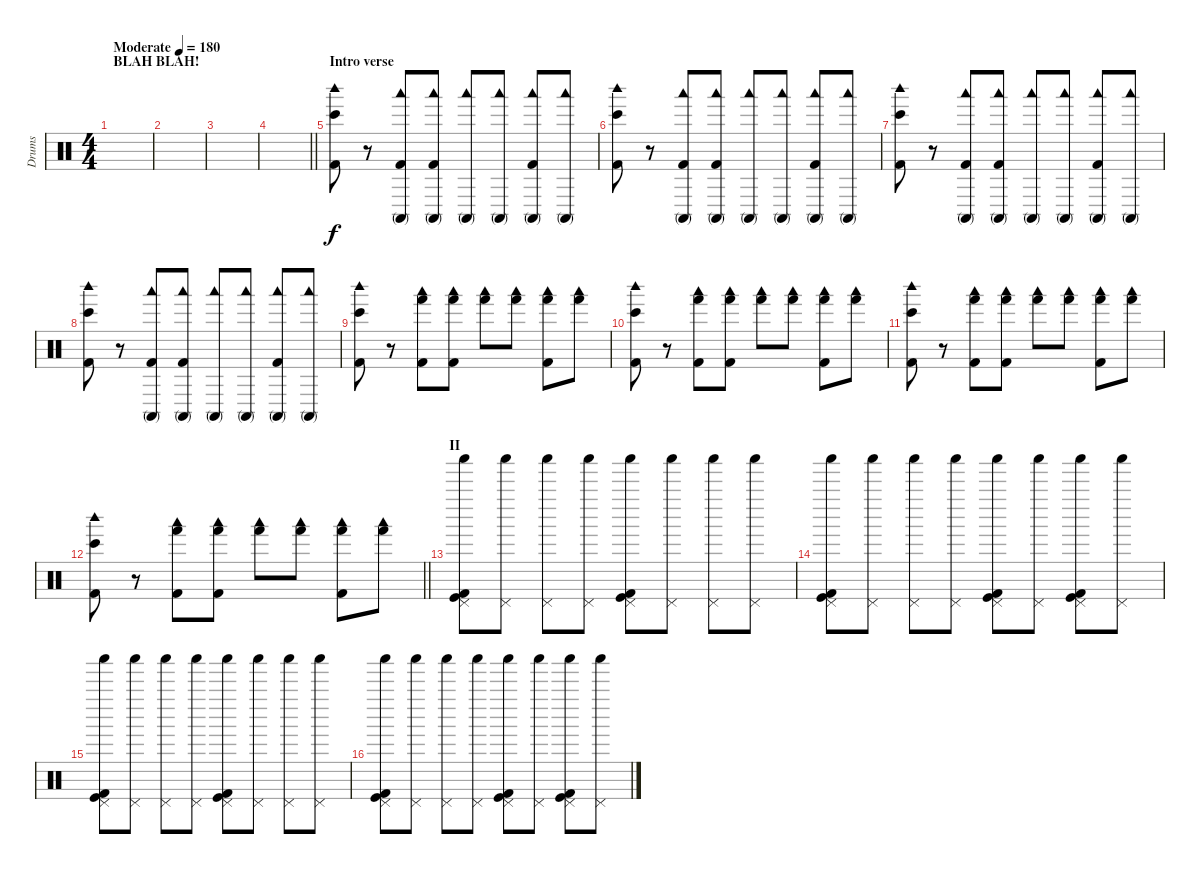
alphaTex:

\track ("Drums" "Drums") {instrument percussion}
\staff {score}
\articulation defaults
\ts (4 4)
\section ("" "BLAH BLAH!")
\tempo (180 "Moderate")
\clef neutral
\ks c
|
|
|
\barLineRight lightlight
|
\section ("" "Intro verse")
("Woodblock high (hit)" "Kick (hit) 2" "Bongo High (hit)").8 r.8 ("Woodblock low (hit)" "Kick (hit) 2" "Conga high (mute)").8 ("Woodblock low (hit)" "Kick (hit) 2" "Conga high (mute)").8 ("Woodblock low (hit)" "Conga high (mute)").8 ("Woodblock low (hit)" "Conga high (mute)").8 ("Woodblock low (hit)" "Kick (hit) 2" "Conga high (mute)").8 ("Woodblock low (hit)" "Conga high (mute)").8 |
("Woodblock high (hit)" "Kick (hit) 2" "Bongo High (hit)").8 r.8 ("Woodblock low (hit)" "Kick (hit) 2" "Conga high (mute)").8 ("Woodblock low (hit)" "Kick (hit) 2" "Conga high (mute)").8 ("Woodblock low (hit)" "Conga high (mute)").8 ("Woodblock low (hit)" "Conga high (mute)").8 ("Woodblock low (hit)" "Kick (hit) 2" "Conga high (mute)").8 ("Woodblock low (hit)" "Conga high (mute)").8 |
("Woodblock high (hit)" "Kick (hit) 2" "Bongo High (hit)").8 r.8 ("Woodblock low (hit)" "Kick (hit) 2" "Conga high (mute)").8 ("Woodblock low (hit)" "Kick (hit) 2" "Conga high (mute)").8 ("Woodblock low (hit)" "Conga high (mute)").8 ("Woodblock low (hit)" "Conga high (mute)").8 ("Woodblock low (hit)" "Kick (hit) 2" "Conga high (mute)").8 ("Woodblock low (hit)" "Conga high (mute)").8 |
("Woodblock high (hit)" "Kick (hit) 2" "Bongo High (hit)").8 r.8 ("Woodblock low (hit)" "Kick (hit) 2" "Conga high (mute)").8 ("Woodblock low (hit)" "Kick (hit) 2" "Conga high (mute)").8 ("Woodblock low (hit)" "Conga high (mute)").8 ("Woodblock low (hit)" "Conga high (mute)").8 ("Woodblock low (hit)" "Kick (hit) 2" "Conga high (mute)").8 ("Woodblock low (hit)" "Conga high (mute)").8 |
("Woodblock high (hit)" "Kick (hit) 2" "Bongo High (hit)").8 r.8 ("Woodblock low (hit)" "Kick (hit) 2" "Hand (hit)").8 ("Woodblock low (hit)" "Kick (hit) 2" "Hand (hit)").8 ("Woodblock low (hit)" "Hand (hit)").8 ("Woodblock low (hit)" "Hand (hit)").8 ("Woodblock low (hit)" "Kick (hit) 2" "Hand (hit)").8 ("Woodblock low (hit)" "Hand (hit)").8 |
("Woodblock high (hit)" "Kick (hit) 2" "Bongo High (hit)").8 r.8 ("Woodblock low (hit)" "Kick (hit) 2" "Hand (hit)").8 ("Woodblock low (hit)" "Kick (hit) 2" "Hand (hit)").8 ("Woodblock low (hit)" "Hand (hit)").8 ("Woodblock low (hit)" "Hand (hit)").8 ("Woodblock low (hit)" "Kick (hit) 2" "Hand (hit)").8 ("Woodblock low (hit)" "Hand (hit)").8 |
("Woodblock high (hit)" "Kick (hit) 2" "Bongo High (hit)").8 r.8 ("Woodblock low (hit)" "Kick (hit) 2" "Hand (hit)").8 ("Woodblock low (hit)" "Kick (hit) 2" "Hand (hit)").8 ("Woodblock low (hit)" "Hand (hit)").8 ("Woodblock low (hit)" "Hand (hit)").8 ("Woodblock low (hit)" "Kick (hit) 2" "Hand (hit)").8 ("Woodblock low (hit)" "Hand (hit)").8 |
\barLineRight lightlight
("Woodblock high (hit)" "Kick (hit) 2" "Bongo High (hit)").8 r.8 ("Woodblock low (hit)" "Kick (hit) 2" "Hand (hit)").8 ("Woodblock low (hit)" "Kick (hit) 2" "Hand (hit)").8 ("Woodblock low (hit)" "Hand (hit)").8 ("Woodblock low (hit)" "Hand (hit)").8 ("Woodblock low (hit)" "Kick (hit) 2" "Hand (hit)").8 ("Woodblock low (hit)" "Hand (hit)").8 |
\section ("" "II")
("Shaker (hit)" "Pedal Hi-Hat (hit)" "Kick (hit) 2" "Kick (hit)").8{volume 11} ("Shaker (hit)" "Pedal Hi-Hat (hit)").8 ("Shaker (hit)" "Pedal Hi-Hat (hit)").8 ("Shaker (hit)" "Pedal Hi-Hat (hit)").8 ("Shaker (hit)" "Pedal Hi-Hat (hit)" "Kick (hit) 2" "Kick (hit)").8 ("Shaker (hit)" "Pedal Hi-Hat (hit)").8 ("Shaker (hit)" "Pedal Hi-Hat (hit)").8 ("Shaker (hit)" "Pedal Hi-Hat (hit)").8 |
("Shaker (hit)" "Pedal Hi-Hat (hit)" "Kick (hit) 2" "Kick (hit)").8 ("Shaker (hit)" "Pedal Hi-Hat (hit)").8 ("Shaker (hit)" "Pedal Hi-Hat (hit)").8 ("Shaker (hit)" "Pedal Hi-Hat (hit)").8 ("Shaker (hit)" "Pedal Hi-Hat (hit)" "Kick (hit) 2" "Kick (hit)").8 ("Shaker (hit)" "Pedal Hi-Hat (hit)").8 ("Shaker (hit)" "Pedal Hi-Hat (hit)" "Kick (hit) 2" "Kick (hit)").8 ("Shaker (hit)" "Pedal Hi-Hat (hit)").8 |
("Shaker (hit)" "Pedal Hi-Hat (hit)" "Kick (hit) 2" "Kick (hit)").8{volume 11} ("Shaker (hit)" "Pedal Hi-Hat (hit)").8 ("Shaker (hit)" "Pedal Hi-Hat (hit)").8 ("Shaker (hit)" "Pedal Hi-Hat (hit)").8 ("Shaker (hit)" "Pedal Hi-Hat (hit)" "Kick (hit) 2" "Kick (hit)").8 ("Shaker (hit)" "Pedal Hi-Hat (hit)").8 ("Shaker (hit)" "Pedal Hi-Hat (hit)").8 ("Shaker (hit)" "Pedal Hi-Hat (hit)").8 |
("Shaker (hit)" "Pedal Hi-Hat (hit)" "Kick (hit) 2" "Kick (hit)").8 ("Shaker (hit)" "Pedal Hi-Hat (hit)").8 ("Shaker (hit)" "Pedal Hi-Hat (hit)").8 ("Shaker (hit)" "Pedal Hi-Hat (hit)").8 ("Shaker (hit)" "Pedal Hi-Hat (hit)" "Kick (hit) 2" "Kick (hit)").8 ("Shaker (hit)" "Pedal Hi-Hat (hit)").8 ("Shaker (hit)" "Pedal Hi-Hat (hit)" "Kick (hit) 2" "Kick (hit)").8 ("Shaker (hit)" "Pedal Hi-Hat (hit)").8
